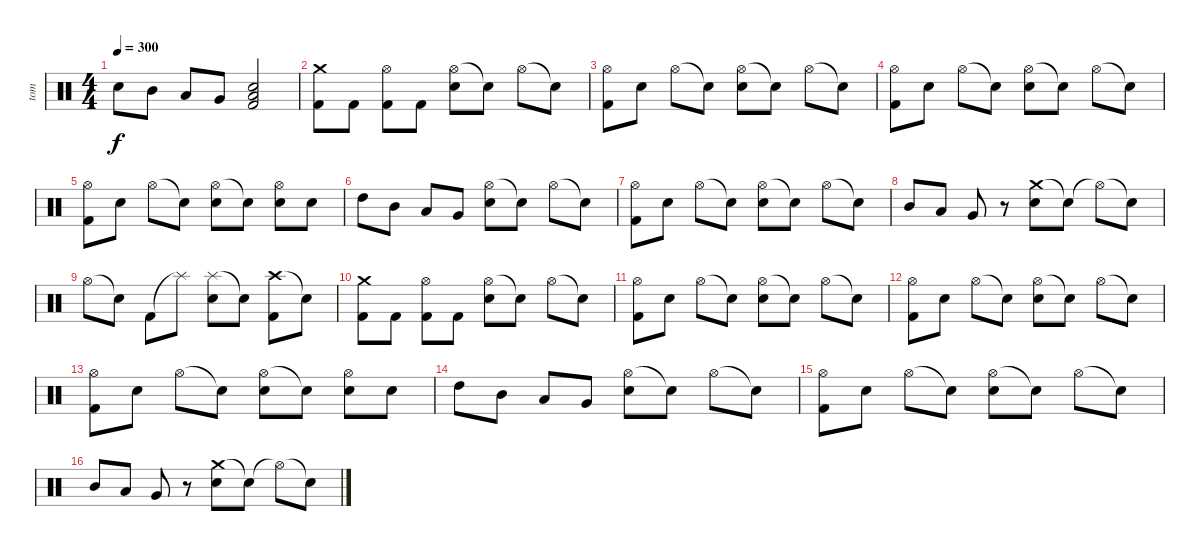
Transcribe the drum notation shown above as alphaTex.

\track ("tom" "tom") {instrument percussion}
\staff {score}
\articulation defaults
\ts (4 4)
\tempo 300
\clef neutral
\ks c "Electric Snare (hit)".8{dy f} "Mid Tom (hit)".8 "Low Tom (hit)".8 "Very Low Tom (hit)".8
("Low Tom (hit)" "Electric Snare (hit)" "Kick (hit) 2").2 |
("Crash medium (hit)" "Kick (hit) 2").8 "Kick (hit) 2".8 ("Hi-Hat (open)" "Kick (hit) 2").8 "Kick (hit) 2".8 ("Hi-Hat (open)" "Electric Snare (hit)").8 "Snare (hit)"{t}.8 "Hi-Hat (open)".8 "Snare (hit)"{t}.8 |
("Hi-Hat (open)" "Kick (hit) 2").8 "Electric Snare (hit)".8 "Hi-Hat (open)".8 "Snare (hit)"{t}.8 ("Hi-Hat (open)" "Electric Snare (hit)").8 "Snare (hit)"{t}.8 "Hi-Hat (open)".8 "Snare (hit)"{t}.8 |
("Hi-Hat (open)" "Kick (hit) 2").8 "Electric Snare (hit)".8 "Hi-Hat (open)".8 "Snare (hit)"{t}.8 ("Hi-Hat (open)" "Electric Snare (hit)").8 "Snare (hit)"{t}.8 "Hi-Hat (open)".8 "Snare (hit)"{t}.8 |
("Hi-Hat (open)" "Kick (hit) 2").8 "Electric Snare (hit)".8 "Hi-Hat (open)".8 "Snare (hit)"{t}.8 ("Hi-Hat (open)" "Electric Snare (hit)").8 "Snare (hit)"{t}.8 ("Hi-Hat (open)" "Electric Snare (hit)").8 "Electric Snare (hit)".8 |
"High Tom (hit)".8 "Mid Tom (hit)".8 "Low Tom (hit)".8 "Very Low Tom (hit)".8 ("Hi-Hat (open)" "Electric Snare (hit)").8 "Snare (hit)"{t}.8 "Hi-Hat (open)".8 "Snare (hit)"{t}.8 |
("Hi-Hat (open)" "Kick (hit) 2").8 "Electric Snare (hit)".8 "Hi-Hat (open)".8 "Snare (hit)"{t}.8 ("Hi-Hat (open)" "Electric Snare (hit)").8 "Snare (hit)"{t}.8 "Hi-Hat (open)".8 "Snare (hit)"{t}.8 |
"Mid Tom (hit)".8 "Low Tom (hit)".8 "Very Low Tom (hit)".8 r.8 ("Crash medium (hit)" "Electric Snare (hit)").8 "Snare (hit)"{t}.8 "Hi-Hat (open)"{t}.8 "Snare (hit)"{t}.8 |
"Hi-Hat (open)".8 "Snare (hit)"{t}.8 "Kick (hit) 2".8 "Splash (hit)"{t}.8 ("Splash (hit)" "Electric Snare (hit)").8 "Snare (hit)"{t}.8 ("Crash high (hit)" "Kick (hit) 2").8 "Snare (hit)"{t}.8 |
("Crash medium (hit)" "Kick (hit) 2").8 "Kick (hit) 2".8 ("Hi-Hat (open)" "Kick (hit) 2").8 "Kick (hit) 2".8 ("Hi-Hat (open)" "Electric Snare (hit)").8 "Snare (hit)"{t}.8 "Hi-Hat (open)".8 "Snare (hit)"{t}.8 |
("Hi-Hat (open)" "Kick (hit) 2").8 "Electric Snare (hit)".8 "Hi-Hat (open)".8 "Snare (hit)"{t}.8 ("Hi-Hat (open)" "Electric Snare (hit)").8 "Snare (hit)"{t}.8 "Hi-Hat (open)".8 "Snare (hit)"{t}.8 |
("Hi-Hat (open)" "Kick (hit) 2").8 "Electric Snare (hit)".8 "Hi-Hat (open)".8 "Snare (hit)"{t}.8 ("Hi-Hat (open)" "Electric Snare (hit)").8 "Snare (hit)"{t}.8 "Hi-Hat (open)".8 "Snare (hit)"{t}.8 |
("Hi-Hat (open)" "Kick (hit) 2").8 "Electric Snare (hit)".8 "Hi-Hat (open)".8 "Snare (hit)"{t}.8 ("Hi-Hat (open)" "Electric Snare (hit)").8 "Snare (hit)"{t}.8 ("Hi-Hat (open)" "Electric Snare (hit)").8 "Electric Snare (hit)".8 |
"High Tom (hit)".8 "Mid Tom (hit)".8 "Low Tom (hit)".8 "Very Low Tom (hit)".8 ("Hi-Hat (open)" "Electric Snare (hit)").8 "Snare (hit)"{t}.8 "Hi-Hat (open)".8 "Snare (hit)"{t}.8 |
("Hi-Hat (open)" "Kick (hit) 2").8 "Electric Snare (hit)".8 "Hi-Hat (open)".8 "Snare (hit)"{t}.8 ("Hi-Hat (open)" "Electric Snare (hit)").8 "Snare (hit)"{t}.8 "Hi-Hat (open)".8 "Snare (hit)"{t}.8 |
"Mid Tom (hit)".8 "Low Tom (hit)".8 "Very Low Tom (hit)".8 r.8 ("Crash medium (hit)" "Electric Snare (hit)").8 "Snare (hit)"{t}.8 "Hi-Hat (open)"{t}.8 "Snare (hit)"{t}.8
